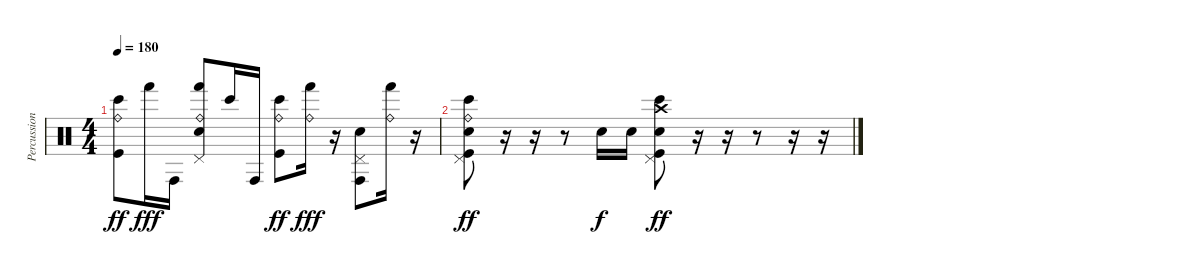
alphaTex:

\track ("Percussion" "Percussion") {instrument percussion}
\staff {score}
\articulation defaults
\ts (4 4)
\tempo 180
\clef neutral
\ks c
("Ride (bell)" "Bongo High (hit)" "Kick (hit)").8{dy ff} "Hand (hit)".16{dy fff} "Conga high (hit)".16 ("Ride (bell)" "Pedal Hi-Hat (hit)" "Hand (hit)" "Electric Snare (hit)").8 "Bongo High (hit)".16 "Conga high (hit)".16 ("Ride (bell)" "Bongo High (hit)" "Kick (hit)").8{dy ff} ("Ride (bell)" "Hand (hit)").16{dy fff} r.16 ("Pedal Hi-Hat (hit)" "Conga high (hit)" "Electric Snare (hit)").8 ("Ride (bell)" "Hand (hit)").16 r.16 |
("Ride (bell)" "Pedal Hi-Hat (hit)" "Bongo High (hit)" "Electric Snare (hit)" "Kick (hit)").8{dy ff} r.16 r.16 r.8 "Electric Snare (hit)".16{dy f} "Electric Snare (hit)".16 ("Crash high (hit)" "Pedal Hi-Hat (hit)" "Bongo High (hit)" "Electric Snare (hit)" "Kick (hit)").8{dy ff} r.16 r.16 r.8 r.16 r.16
